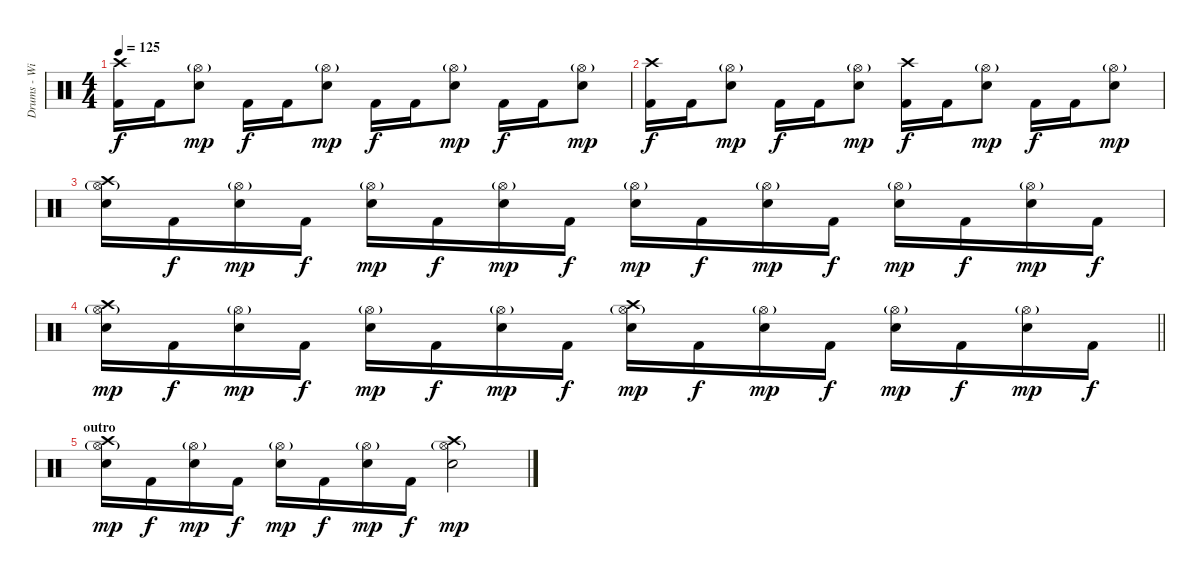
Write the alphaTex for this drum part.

\track ("Drums - Willie Buchan" "Drums - Wi") {instrument percussion}
\staff {score}
\articulation defaults
\ts (4 4)
\tempo 125
\clef neutral
\ks c
("Crash high (hit)" "Kick (hit) 2").16{dy f} "Kick (hit) 2".16 ("Hi-Hat (open)"{g} "Electric Snare (hit)").8{dy mp} "Kick (hit) 2".16{dy f} "Kick (hit) 2".16 ("Hi-Hat (open)"{g} "Electric Snare (hit)").8{dy mp} "Kick (hit) 2".16{dy f} "Kick (hit) 2".16 ("Hi-Hat (open)"{g} "Electric Snare (hit)").8{dy mp} "Kick (hit) 2".16{dy f} "Kick (hit) 2".16 ("Hi-Hat (open)"{g} "Electric Snare (hit)").8{dy mp} |
("Crash high (hit)" "Kick (hit) 2").16{dy f} "Kick (hit) 2".16 ("Hi-Hat (open)"{g} "Electric Snare (hit)").8{dy mp} "Kick (hit) 2".16{dy f} "Kick (hit) 2".16 ("Hi-Hat (open)"{g} "Electric Snare (hit)").8{dy mp} ("Crash high (hit)" "Kick (hit) 2").16{dy f} "Kick (hit) 2".16 ("Hi-Hat (open)"{g} "Electric Snare (hit)").8{dy mp} "Kick (hit) 2".16{dy f} "Kick (hit) 2".16 ("Hi-Hat (open)"{g} "Electric Snare (hit)").8{dy mp} |
("Hi-Hat (open)"{g} "Crash high (hit)" "Electric Snare (hit)").16 "Kick (hit) 2".16{dy f} ("Hi-Hat (open)"{g} "Electric Snare (hit)").16{dy mp} "Kick (hit) 2".16{dy f} ("Hi-Hat (open)"{g} "Electric Snare (hit)").16{dy mp} "Kick (hit) 2".16{dy f} ("Hi-Hat (open)"{g} "Electric Snare (hit)").16{dy mp} "Kick (hit) 2".16{dy f} ("Hi-Hat (open)"{g} "Electric Snare (hit)").16{dy mp} "Kick (hit) 2".16{dy f} ("Hi-Hat (open)"{g} "Electric Snare (hit)").16{dy mp} "Kick (hit) 2".16{dy f} ("Hi-Hat (open)"{g} "Electric Snare (hit)").16{dy mp} "Kick (hit) 2".16{dy f} ("Hi-Hat (open)"{g} "Electric Snare (hit)").16{dy mp} "Kick (hit) 2".16{dy f} |
\barLineRight lightlight
("Hi-Hat (open)"{g} "Crash high (hit)" "Electric Snare (hit)").16{dy mp} "Kick (hit) 2".16{dy f} ("Hi-Hat (open)"{g} "Electric Snare (hit)").16{dy mp} "Kick (hit) 2".16{dy f} ("Hi-Hat (open)"{g} "Electric Snare (hit)").16{dy mp} "Kick (hit) 2".16{dy f} ("Hi-Hat (open)"{g} "Electric Snare (hit)").16{dy mp} "Kick (hit) 2".16{dy f} ("Hi-Hat (open)"{g} "Crash high (hit)" "Electric Snare (hit)").16{dy mp} "Kick (hit) 2".16{dy f} ("Hi-Hat (open)"{g} "Electric Snare (hit)").16{dy mp} "Kick (hit) 2".16{dy f} ("Hi-Hat (open)"{g} "Electric Snare (hit)").16{dy mp} "Kick (hit) 2".16{dy f} ("Hi-Hat (open)"{g} "Electric Snare (hit)").16{dy mp} "Kick (hit) 2".16{dy f} |
\section ("" "outro")
("Hi-Hat (open)"{g} "Crash high (hit)" "Electric Snare (hit)").16{dy mp} "Kick (hit) 2".16{dy f} ("Hi-Hat (open)"{g} "Electric Snare (hit)").16{dy mp} "Kick (hit) 2".16{dy f} ("Hi-Hat (open)"{g} "Electric Snare (hit)").16{dy mp} "Kick (hit) 2".16{dy f} ("Hi-Hat (open)"{g} "Electric Snare (hit)").16{dy mp} "Kick (hit) 2".16{dy f} ("Hi-Hat (open)"{g} "Crash high (hit)" "Electric Snare (hit)").2{dy mp}
